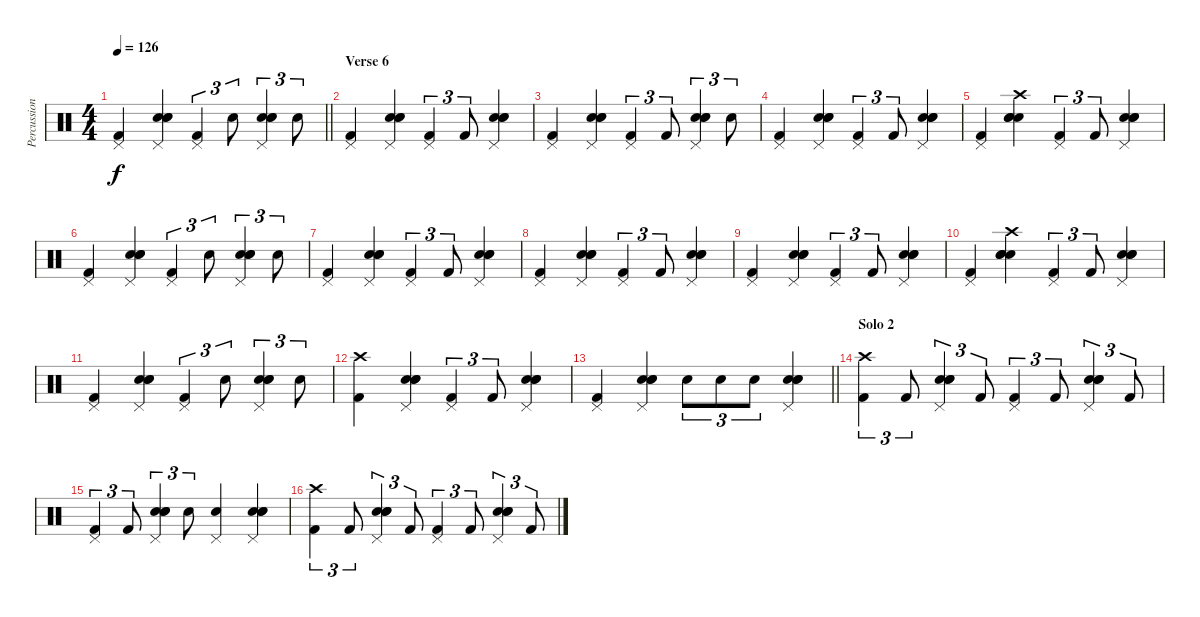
\track ("Percussion" "Percussion") {instrument percussion}
\staff {score}
\articulation defaults
\ts (4 4)
\tempo 126
\clef neutral
\barLineRight lightlight
\ks c
("Pedal Hi-Hat (hit)" "Kick (hit) 2").4{dy f} ("Pedal Hi-Hat (hit)" "Electric Snare (hit)" "Hand Clap (hit)" "Hand Clap (hit)").4 ("Pedal Hi-Hat (hit)" "Kick (hit) 2").4{tu (3 2)} "Electric Snare (hit)".8{tu (3 2)} ("Pedal Hi-Hat (hit)" "Electric Snare (hit)" "Hand Clap (hit)" "Hand Clap (hit)").4{tu (3 2)} "Electric Snare (hit)".8{tu (3 2)} |
\section ("" "Verse 6")
("Pedal Hi-Hat (hit)" "Kick (hit) 2").4 ("Pedal Hi-Hat (hit)" "Electric Snare (hit)" "Hand Clap (hit)" "Hand Clap (hit)").4 ("Pedal Hi-Hat (hit)" "Kick (hit) 2").4{tu (3 2)} "Kick (hit) 2".8{tu (3 2)} ("Pedal Hi-Hat (hit)" "Electric Snare (hit)" "Hand Clap (hit)" "Hand Clap (hit)").4 |
("Pedal Hi-Hat (hit)" "Kick (hit) 2").4 ("Pedal Hi-Hat (hit)" "Electric Snare (hit)" "Hand Clap (hit)" "Hand Clap (hit)").4 ("Pedal Hi-Hat (hit)" "Kick (hit) 2").4{tu (3 2)} "Kick (hit) 2".8{tu (3 2)} ("Pedal Hi-Hat (hit)" "Electric Snare (hit)" "Hand Clap (hit)" "Hand Clap (hit)").4{tu (3 2)} "Electric Snare (hit)".8{tu (3 2)} |
("Pedal Hi-Hat (hit)" "Kick (hit) 2").4 ("Pedal Hi-Hat (hit)" "Electric Snare (hit)" "Hand Clap (hit)" "Hand Clap (hit)").4 ("Pedal Hi-Hat (hit)" "Kick (hit) 2").4{tu (3 2)} "Kick (hit) 2".8{tu (3 2)} ("Pedal Hi-Hat (hit)" "Electric Snare (hit)" "Hand Clap (hit)" "Hand Clap (hit)").4 |
("Pedal Hi-Hat (hit)" "Kick (hit) 2").4 ("Crash high (hit)" "Electric Snare (hit)" "Hand Clap (hit)" "Hand Clap (hit)").4 ("Pedal Hi-Hat (hit)" "Kick (hit) 2").4{tu (3 2)} "Kick (hit) 2".8{tu (3 2)} ("Pedal Hi-Hat (hit)" "Electric Snare (hit)" "Hand Clap (hit)" "Hand Clap (hit)").4 |
("Pedal Hi-Hat (hit)" "Kick (hit) 2").4 ("Pedal Hi-Hat (hit)" "Electric Snare (hit)" "Hand Clap (hit)" "Hand Clap (hit)").4 ("Pedal Hi-Hat (hit)" "Kick (hit) 2").4{tu (3 2)} "Electric Snare (hit)".8{tu (3 2)} ("Pedal Hi-Hat (hit)" "Electric Snare (hit)" "Hand Clap (hit)" "Hand Clap (hit)").4{tu (3 2)} "Electric Snare (hit)".8{tu (3 2)} |
("Pedal Hi-Hat (hit)" "Kick (hit) 2").4 ("Pedal Hi-Hat (hit)" "Electric Snare (hit)" "Hand Clap (hit)" "Hand Clap (hit)").4 ("Pedal Hi-Hat (hit)" "Kick (hit) 2").4{tu (3 2)} "Kick (hit) 2".8{tu (3 2)} ("Pedal Hi-Hat (hit)" "Electric Snare (hit)" "Hand Clap (hit)" "Hand Clap (hit)").4 |
("Pedal Hi-Hat (hit)" "Kick (hit) 2").4 ("Pedal Hi-Hat (hit)" "Electric Snare (hit)" "Hand Clap (hit)" "Hand Clap (hit)").4 ("Pedal Hi-Hat (hit)" "Kick (hit) 2").4{tu (3 2)} "Kick (hit) 2".8{tu (3 2)} ("Pedal Hi-Hat (hit)" "Electric Snare (hit)" "Hand Clap (hit)" "Hand Clap (hit)").4 |
("Pedal Hi-Hat (hit)" "Kick (hit) 2").4 ("Pedal Hi-Hat (hit)" "Electric Snare (hit)" "Hand Clap (hit)" "Hand Clap (hit)").4 ("Pedal Hi-Hat (hit)" "Kick (hit) 2").4{tu (3 2)} "Kick (hit) 2".8{tu (3 2)} ("Pedal Hi-Hat (hit)" "Electric Snare (hit)" "Hand Clap (hit)" "Hand Clap (hit)").4 |
("Pedal Hi-Hat (hit)" "Kick (hit) 2").4 ("Crash high (hit)" "Electric Snare (hit)" "Hand Clap (hit)" "Hand Clap (hit)").4 ("Pedal Hi-Hat (hit)" "Kick (hit) 2").4{tu (3 2)} "Kick (hit) 2".8{tu (3 2)} ("Pedal Hi-Hat (hit)" "Electric Snare (hit)" "Hand Clap (hit)" "Hand Clap (hit)").4 |
("Pedal Hi-Hat (hit)" "Kick (hit) 2").4 ("Pedal Hi-Hat (hit)" "Electric Snare (hit)" "Hand Clap (hit)" "Hand Clap (hit)").4 ("Pedal Hi-Hat (hit)" "Kick (hit) 2").4{tu (3 2)} "Electric Snare (hit)".8{tu (3 2)} ("Pedal Hi-Hat (hit)" "Electric Snare (hit)" "Hand Clap (hit)" "Hand Clap (hit)").4{tu (3 2)} "Electric Snare (hit)".8{tu (3 2)} |
("Crash high (hit)" "Kick (hit) 2").4 ("Pedal Hi-Hat (hit)" "Electric Snare (hit)" "Hand Clap (hit)" "Hand Clap (hit)").4 ("Pedal Hi-Hat (hit)" "Kick (hit) 2").4{tu (3 2)} "Kick (hit) 2".8{tu (3 2)} ("Pedal Hi-Hat (hit)" "Electric Snare (hit)" "Hand Clap (hit)" "Hand Clap (hit)").4 |
\barLineRight lightlight
("Pedal Hi-Hat (hit)" "Kick (hit) 2").4 ("Pedal Hi-Hat (hit)" "Electric Snare (hit)" "Hand Clap (hit)" "Hand Clap (hit)").4 "Electric Snare (hit)".8{tu (3 2)} "Electric Snare (hit)".8{tu (3 2)} "Electric Snare (hit)".8{tu (3 2)} ("Pedal Hi-Hat (hit)" "Electric Snare (hit)" "Hand Clap (hit)" "Hand Clap (hit)").4 |
\section ("" "Solo 2")
("Crash high (hit)" "Kick (hit) 2").4{tu (3 2)} "Kick (hit) 2".8{tu (3 2)} ("Pedal Hi-Hat (hit)" "Electric Snare (hit)" "Hand Clap (hit)" "Hand Clap (hit)").4{tu (3 2)} "Kick (hit) 2".8{tu (3 2)} ("Pedal Hi-Hat (hit)" "Kick (hit) 2").4{tu (3 2)} "Kick (hit) 2".8{tu (3 2)} ("Pedal Hi-Hat (hit)" "Electric Snare (hit)" "Hand Clap (hit)" "Hand Clap (hit)").4{tu (3 2)} "Kick (hit) 2".8{tu (3 2)} |
("Pedal Hi-Hat (hit)" "Kick (hit) 2").4{tu (3 2)} "Kick (hit) 2".8{tu (3 2)} ("Pedal Hi-Hat (hit)" "Electric Snare (hit)" "Hand Clap (hit)" "Hand Clap (hit)").4{tu (3 2)} "Electric Snare (hit)".8{tu (3 2)} ("Pedal Hi-Hat (hit)" "Electric Snare (hit)").4 ("Pedal Hi-Hat (hit)" "Electric Snare (hit)" "Hand Clap (hit)" "Hand Clap (hit)").4 |
("Crash high (hit)" "Kick (hit) 2").4{tu (3 2)} "Kick (hit) 2".8{tu (3 2)} ("Pedal Hi-Hat (hit)" "Electric Snare (hit)" "Hand Clap (hit)" "Hand Clap (hit)").4{tu (3 2)} "Kick (hit) 2".8{tu (3 2)} ("Pedal Hi-Hat (hit)" "Kick (hit) 2").4{tu (3 2)} "Kick (hit) 2".8{tu (3 2)} ("Pedal Hi-Hat (hit)" "Electric Snare (hit)" "Hand Clap (hit)" "Hand Clap (hit)").4{tu (3 2)} "Kick (hit) 2".8{tu (3 2)}
